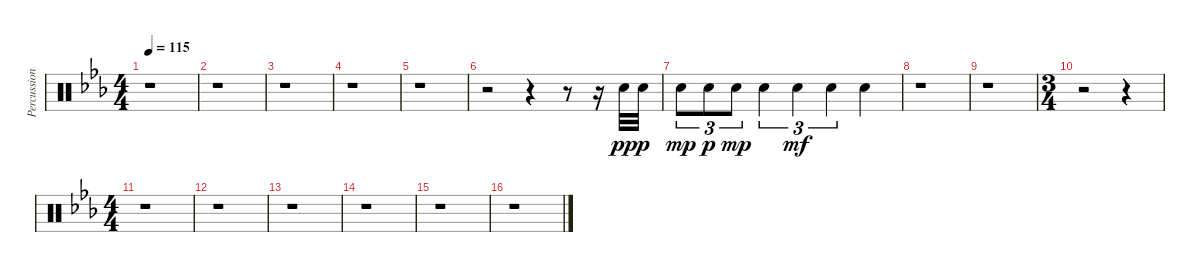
\track ("Percussion" "Percussion") {instrument percussion}
\staff {score}
\articulation defaults
\ts (4 4)
\tempo 115
\clef neutral
\ks cminor
r.1{dy mf} |
r.1 |
r.1 |
r.1 |
r.1 |
r.2 r.4 r.8 r.16 "Snare (hit) 2".32{dy pp} "Snare (hit) 2".32{dy p} |
"Snare (hit) 2".8{tu (3 2) dy mp} "Snare (hit) 2".8{tu (3 2) dy p} "Snare (hit) 2".8{tu (3 2) dy mp} "Snare (hit) 2".4{tu (3 2)} "Snare (hit) 2".4{tu (3 2) dy mf} "Snare (hit) 2".4{tu (3 2)} "Snare (hit) 2".4 |
r.1 |
r.1 |
\ts (3 4)
r.2 r.4 |
\ts (4 4)
r.1 |
r.1 |
r.1 |
r.1 |
r.1 |
r.1
